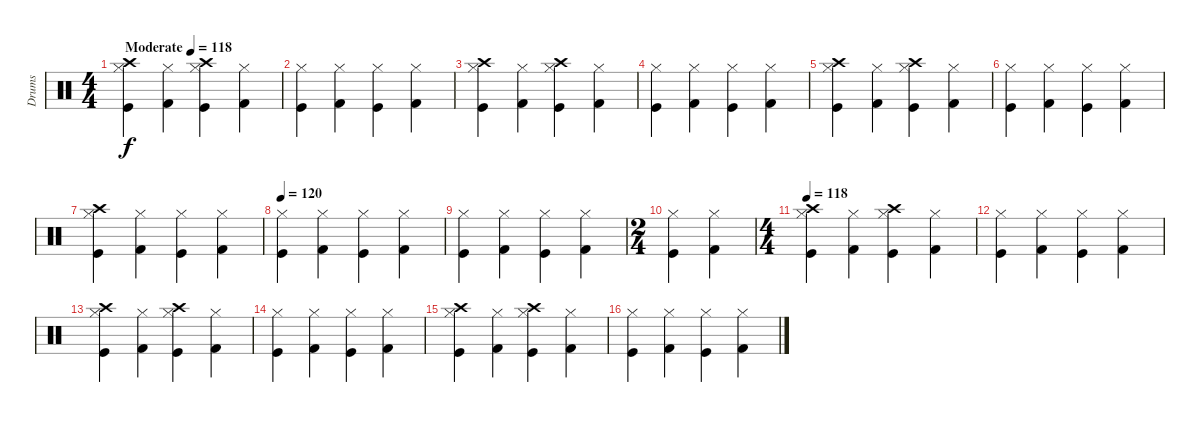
\track ("Drums" "Drums") {instrument percussion}
\staff {score}
\articulation defaults
\ts (4 4)
\tempo (118 "Moderate")
\clef neutral
\ks c
("Crash high (hit)" "Kick (hit)" "Hi-Hat (closed)").4{dy f} ("Hi-Hat (closed)" "Kick (hit) 2").4 ("Crash high (hit)" "Kick (hit)" "Hi-Hat (closed)").4 ("Hi-Hat (closed)" "Kick (hit) 2").4 |
("Kick (hit)" "Hi-Hat (closed)").4 ("Hi-Hat (closed)" "Kick (hit) 2").4 ("Kick (hit)" "Hi-Hat (closed)").4 ("Hi-Hat (closed)" "Kick (hit) 2").4 |
("Crash high (hit)" "Kick (hit)" "Hi-Hat (closed)").4 ("Hi-Hat (closed)" "Kick (hit) 2").4 ("Crash high (hit)" "Kick (hit)" "Hi-Hat (closed)").4 ("Hi-Hat (closed)" "Kick (hit) 2").4 |
("Kick (hit)" "Hi-Hat (closed)").4 ("Hi-Hat (closed)" "Kick (hit) 2").4 ("Kick (hit)" "Hi-Hat (closed)").4 ("Hi-Hat (closed)" "Kick (hit) 2").4 |
("Crash high (hit)" "Kick (hit)" "Hi-Hat (closed)").4 ("Hi-Hat (closed)" "Kick (hit) 2").4 ("Crash high (hit)" "Kick (hit)" "Hi-Hat (closed)").4 ("Hi-Hat (closed)" "Kick (hit) 2").4 |
("Kick (hit)" "Hi-Hat (closed)").4 ("Hi-Hat (closed)" "Kick (hit) 2").4 ("Kick (hit)" "Hi-Hat (closed)").4 ("Hi-Hat (closed)" "Kick (hit) 2").4 |
("Crash high (hit)" "Kick (hit)" "Hi-Hat (closed)").4 ("Hi-Hat (closed)" "Kick (hit) 2").4 ("Kick (hit)" "Hi-Hat (closed)").4 ("Hi-Hat (closed)" "Kick (hit) 2").4 |
\tempo 120
("Kick (hit)" "Hi-Hat (closed)").4 ("Hi-Hat (closed)" "Kick (hit) 2").4 ("Kick (hit)" "Hi-Hat (closed)").4 ("Hi-Hat (closed)" "Kick (hit) 2").4 |
("Kick (hit)" "Hi-Hat (closed)").4 ("Hi-Hat (closed)" "Kick (hit) 2").4 ("Kick (hit)" "Hi-Hat (closed)").4 ("Hi-Hat (closed)" "Kick (hit) 2").4 |
\ts (2 4)
("Kick (hit)" "Hi-Hat (closed)").4 ("Hi-Hat (closed)" "Kick (hit) 2").4 |
\ts (4 4)
\tempo 118
("Crash high (hit)" "Kick (hit)" "Hi-Hat (closed)").4 ("Hi-Hat (closed)" "Kick (hit) 2").4 ("Crash high (hit)" "Kick (hit)" "Hi-Hat (closed)").4 ("Hi-Hat (closed)" "Kick (hit) 2").4 |
("Kick (hit)" "Hi-Hat (closed)").4 ("Hi-Hat (closed)" "Kick (hit) 2").4 ("Kick (hit)" "Hi-Hat (closed)").4 ("Hi-Hat (closed)" "Kick (hit) 2").4 |
("Crash high (hit)" "Kick (hit)" "Hi-Hat (closed)").4 ("Hi-Hat (closed)" "Kick (hit) 2").4 ("Crash high (hit)" "Kick (hit)" "Hi-Hat (closed)").4 ("Hi-Hat (closed)" "Kick (hit) 2").4 |
("Kick (hit)" "Hi-Hat (closed)").4 ("Hi-Hat (closed)" "Kick (hit) 2").4 ("Kick (hit)" "Hi-Hat (closed)").4 ("Hi-Hat (closed)" "Kick (hit) 2").4 |
("Crash high (hit)" "Kick (hit)" "Hi-Hat (closed)").4 ("Hi-Hat (closed)" "Kick (hit) 2").4 ("Crash high (hit)" "Kick (hit)" "Hi-Hat (closed)").4 ("Hi-Hat (closed)" "Kick (hit) 2").4 |
("Kick (hit)" "Hi-Hat (closed)").4 ("Hi-Hat (closed)" "Kick (hit) 2").4 ("Kick (hit)" "Hi-Hat (closed)").4 ("Hi-Hat (closed)" "Kick (hit) 2").4
